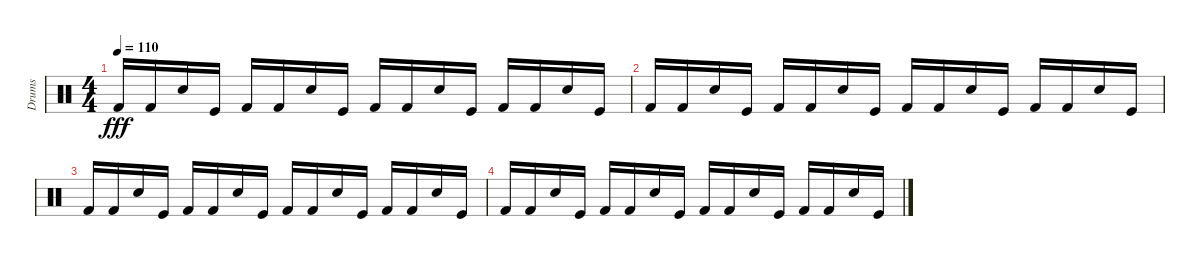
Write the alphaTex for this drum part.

\track ("Drums" "Drums") {instrument percussion}
\staff {score}
\articulation defaults
\ts (4 4)
\tempo 110
\clef neutral
\ks c "Kick (hit) 2".16{dy fff} "Kick (hit) 2".16 "Electric Snare (hit)".16 "Kick (hit)".16 "Kick (hit) 2".16 "Kick (hit) 2".16 "Electric Snare (hit)".16 "Kick (hit)".16 "Kick (hit) 2".16 "Kick (hit) 2".16 "Electric Snare (hit)".16 "Kick (hit)".16 "Kick (hit) 2".16 "Kick (hit) 2".16 "Electric Snare (hit)".16 "Kick (hit)".16
|
"Kick (hit) 2".16 "Kick (hit) 2".16 "Electric Snare (hit)".16 "Kick (hit)".16 "Kick (hit) 2".16 "Kick (hit) 2".16 "Electric Snare (hit)".16 "Kick (hit)".16 "Kick (hit) 2".16 "Kick (hit) 2".16 "Electric Snare (hit)".16 "Kick (hit)".16 "Kick (hit) 2".16 "Kick (hit) 2".16 "Electric Snare (hit)".16 "Kick (hit)".16 |
"Kick (hit) 2".16 "Kick (hit) 2".16 "Electric Snare (hit)".16 "Kick (hit)".16 "Kick (hit) 2".16 "Kick (hit) 2".16 "Electric Snare (hit)".16 "Kick (hit)".16 "Kick (hit) 2".16 "Kick (hit) 2".16 "Electric Snare (hit)".16 "Kick (hit)".16 "Kick (hit) 2".16 "Kick (hit) 2".16 "Electric Snare (hit)".16 "Kick (hit)".16 |
"Kick (hit) 2".16 "Kick (hit) 2".16 "Electric Snare (hit)".16 "Kick (hit)".16 "Kick (hit) 2".16 "Kick (hit) 2".16 "Electric Snare (hit)".16 "Kick (hit)".16 "Kick (hit) 2".16 "Kick (hit) 2".16 "Electric Snare (hit)".16 "Kick (hit)".16 "Kick (hit) 2".16 "Kick (hit) 2".16 "Electric Snare (hit)".16 "Kick (hit)".16
